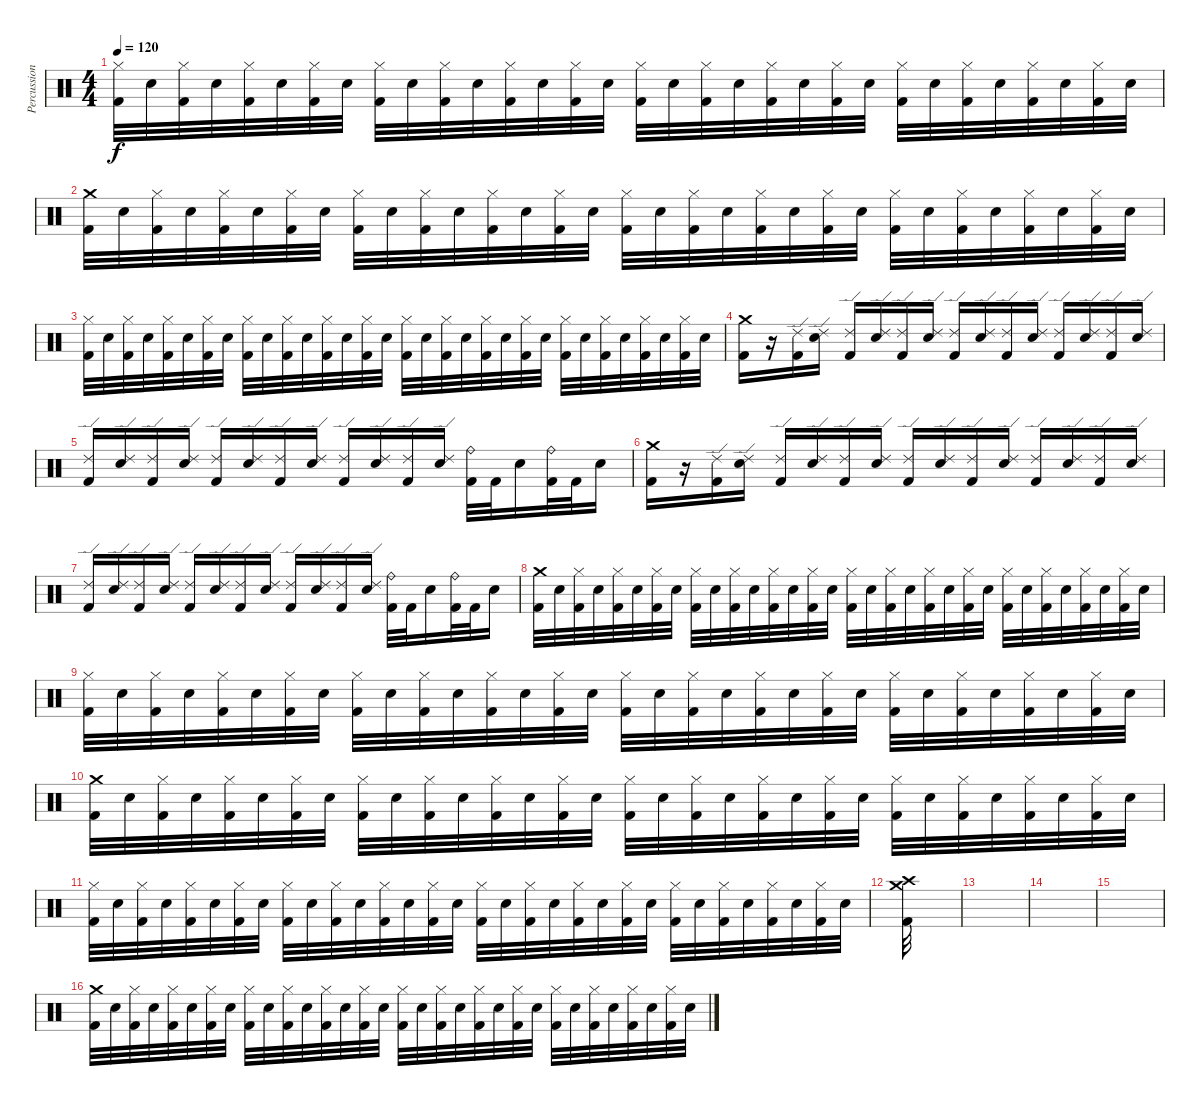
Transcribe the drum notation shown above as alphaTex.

\track ("Percussion" "Percussion") {instrument percussion}
\staff {score}
\articulation defaults
\ts (4 4)
\tempo 120
\clef neutral
\ks c
("Kick (hit) 2" "Hi-Hat (closed)").32{dy f} "Snare (hit) 2".32 ("Kick (hit) 2" "Hi-Hat (closed)").32 "Snare (hit) 2".32 ("Kick (hit) 2" "Hi-Hat (closed)").32 "Snare (hit) 2".32 ("Kick (hit) 2" "Hi-Hat (closed)").32 "Snare (hit) 2".32 ("Kick (hit) 2" "Hi-Hat (closed)").32 "Snare (hit) 2".32 ("Kick (hit) 2" "Hi-Hat (closed)").32 "Snare (hit) 2".32 ("Kick (hit) 2" "Hi-Hat (closed)").32 "Snare (hit) 2".32 ("Kick (hit) 2" "Hi-Hat (closed)").32 "Snare (hit) 2".32 ("Kick (hit) 2" "Hi-Hat (closed)").32 "Snare (hit) 2".32 ("Kick (hit) 2" "Hi-Hat (closed)").32 "Snare (hit) 2".32 ("Kick (hit) 2" "Hi-Hat (closed)").32 "Snare (hit) 2".32 ("Kick (hit) 2" "Hi-Hat (closed)").32 "Snare (hit) 2".32 ("Kick (hit) 2" "Hi-Hat (closed)").32 "Snare (hit) 2".32 ("Kick (hit) 2" "Hi-Hat (closed)").32 "Snare (hit) 2".32 ("Kick (hit) 2" "Hi-Hat (closed)").32 "Snare (hit) 2".32 ("Kick (hit) 2" "Hi-Hat (closed)").32 "Snare (hit) 2".32 |
("Kick (hit) 2" "Crash medium (hit)").32 "Snare (hit) 2".32 ("Kick (hit) 2" "Hi-Hat (closed)").32 "Snare (hit) 2".32 ("Kick (hit) 2" "Hi-Hat (closed)").32 "Snare (hit) 2".32 ("Kick (hit) 2" "Hi-Hat (closed)").32 "Snare (hit) 2".32 ("Kick (hit) 2" "Hi-Hat (closed)").32 "Snare (hit) 2".32 ("Kick (hit) 2" "Hi-Hat (closed)").32 "Snare (hit) 2".32 ("Kick (hit) 2" "Hi-Hat (closed)").32 "Snare (hit) 2".32 ("Kick (hit) 2" "Hi-Hat (closed)").32 "Snare (hit) 2".32 ("Kick (hit) 2" "Hi-Hat (closed)").32 "Snare (hit) 2".32 ("Kick (hit) 2" "Hi-Hat (closed)").32 "Snare (hit) 2".32 ("Kick (hit) 2" "Hi-Hat (closed)").32 "Snare (hit) 2".32 ("Kick (hit) 2" "Hi-Hat (closed)").32 "Snare (hit) 2".32 ("Kick (hit) 2" "Hi-Hat (closed)").32 "Snare (hit) 2".32 ("Kick (hit) 2" "Hi-Hat (closed)").32 "Snare (hit) 2".32 ("Kick (hit) 2" "Hi-Hat (closed)").32 "Snare (hit) 2".32 ("Kick (hit) 2" "Hi-Hat (closed)").32 "Snare (hit) 2".32 |
("Kick (hit) 2" "Hi-Hat (closed)").32 "Snare (hit) 2".32 ("Kick (hit) 2" "Hi-Hat (closed)").32 "Snare (hit) 2".32 ("Kick (hit) 2" "Hi-Hat (closed)").32 "Snare (hit) 2".32 ("Kick (hit) 2" "Hi-Hat (closed)").32 "Snare (hit) 2".32 ("Kick (hit) 2" "Hi-Hat (closed)").32 "Snare (hit) 2".32 ("Kick (hit) 2" "Hi-Hat (closed)").32 "Snare (hit) 2".32 ("Kick (hit) 2" "Hi-Hat (closed)").32 "Snare (hit) 2".32 ("Kick (hit) 2" "Hi-Hat (closed)").32 "Snare (hit) 2".32 ("Kick (hit) 2" "Hi-Hat (closed)").32 "Snare (hit) 2".32 ("Kick (hit) 2" "Hi-Hat (closed)").32 "Snare (hit) 2".32 ("Kick (hit) 2" "Hi-Hat (closed)").32 "Snare (hit) 2".32 ("Kick (hit) 2" "Hi-Hat (closed)").32 "Snare (hit) 2".32 ("Kick (hit) 2" "Hi-Hat (closed)").32 "Snare (hit) 2".32 ("Kick (hit) 2" "Hi-Hat (closed)").32 "Snare (hit) 2".32 ("Kick (hit) 2" "Hi-Hat (closed)").32 "Snare (hit) 2".32 ("Kick (hit) 2" "Hi-Hat (closed)").32 "Snare (hit) 2".32 |
("Kick (hit) 2" "Crash medium (hit)").16 r.16 ("Kick (hit) 2" "Ride (edge) 2").16 ("Snare (hit) 2" "Ride (edge) 2").16 ("Kick (hit) 2" "Ride (edge) 2").16 ("Snare (hit) 2" "Ride (edge) 2").16 ("Kick (hit) 2" "Ride (edge) 2").16 ("Snare (hit) 2" "Ride (edge) 2").16 ("Kick (hit) 2" "Ride (edge) 2").16 ("Snare (hit) 2" "Ride (edge) 2").16 ("Kick (hit) 2" "Ride (edge) 2").16 ("Snare (hit) 2" "Ride (edge) 2").16 ("Kick (hit) 2" "Ride (edge) 2").16 ("Snare (hit) 2" "Ride (edge) 2").16 ("Kick (hit) 2" "Ride (edge) 2").16 ("Snare (hit) 2" "Ride (edge) 2").16 |
("Kick (hit) 2" "Ride (edge) 2").16 ("Snare (hit) 2" "Ride (edge) 2").16 ("Kick (hit) 2" "Ride (edge) 2").16 ("Snare (hit) 2" "Ride (edge) 2").16 ("Kick (hit) 2" "Ride (edge) 2").16 ("Snare (hit) 2" "Ride (edge) 2").16 ("Kick (hit) 2" "Ride (edge) 2").16 ("Snare (hit) 2" "Ride (edge) 2").16 ("Kick (hit) 2" "Ride (edge) 2").16 ("Snare (hit) 2" "Ride (edge) 2").16 ("Kick (hit) 2" "Ride (edge) 2").16 ("Snare (hit) 2" "Ride (edge) 2").16 ("Kick (hit) 2" "Ride (bell)").32 "Kick (hit) 2".32 "Snare (hit) 2".16 ("Kick (hit) 2" "Ride (bell)").32 "Kick (hit) 2".32 "Snare (hit) 2".16 |
("Kick (hit) 2" "Crash medium (hit)").16 r.16 ("Kick (hit) 2" "Ride (edge) 2").16 ("Snare (hit) 2" "Ride (edge) 2").16 ("Kick (hit) 2" "Ride (edge) 2").16 ("Snare (hit) 2" "Ride (edge) 2").16 ("Kick (hit) 2" "Ride (edge) 2").16 ("Snare (hit) 2" "Ride (edge) 2").16 ("Kick (hit) 2" "Ride (edge) 2").16 ("Snare (hit) 2" "Ride (edge) 2").16 ("Kick (hit) 2" "Ride (edge) 2").16 ("Snare (hit) 2" "Ride (edge) 2").16 ("Kick (hit) 2" "Ride (edge) 2").16 ("Snare (hit) 2" "Ride (edge) 2").16 ("Kick (hit) 2" "Ride (edge) 2").16 ("Snare (hit) 2" "Ride (edge) 2").16 |
("Kick (hit) 2" "Ride (edge) 2").16 ("Snare (hit) 2" "Ride (edge) 2").16 ("Kick (hit) 2" "Ride (edge) 2").16 ("Snare (hit) 2" "Ride (edge) 2").16 ("Kick (hit) 2" "Ride (edge) 2").16 ("Snare (hit) 2" "Ride (edge) 2").16 ("Kick (hit) 2" "Ride (edge) 2").16 ("Snare (hit) 2" "Ride (edge) 2").16 ("Kick (hit) 2" "Ride (edge) 2").16 ("Snare (hit) 2" "Ride (edge) 2").16 ("Kick (hit) 2" "Ride (edge) 2").16 ("Snare (hit) 2" "Ride (edge) 2").16 ("Kick (hit) 2" "Ride (bell)").32 "Kick (hit) 2".32 "Snare (hit) 2".16 ("Kick (hit) 2" "Ride (bell)").32 "Kick (hit) 2".32 "Snare (hit) 2".16 |
("Kick (hit) 2" "Crash medium (hit)").32 "Snare (hit) 2".32 ("Kick (hit) 2" "Hi-Hat (closed)").32 "Snare (hit) 2".32 ("Kick (hit) 2" "Hi-Hat (closed)").32 "Snare (hit) 2".32 ("Kick (hit) 2" "Hi-Hat (closed)").32 "Snare (hit) 2".32 ("Kick (hit) 2" "Hi-Hat (closed)").32 "Snare (hit) 2".32 ("Kick (hit) 2" "Hi-Hat (closed)").32 "Snare (hit) 2".32 ("Kick (hit) 2" "Hi-Hat (closed)").32 "Snare (hit) 2".32 ("Kick (hit) 2" "Hi-Hat (closed)").32 "Snare (hit) 2".32 ("Kick (hit) 2" "Hi-Hat (closed)").32 "Snare (hit) 2".32 ("Kick (hit) 2" "Hi-Hat (closed)").32 "Snare (hit) 2".32 ("Kick (hit) 2" "Hi-Hat (closed)").32 "Snare (hit) 2".32 ("Kick (hit) 2" "Hi-Hat (closed)").32 "Snare (hit) 2".32 ("Kick (hit) 2" "Hi-Hat (closed)").32 "Snare (hit) 2".32 ("Kick (hit) 2" "Hi-Hat (closed)").32 "Snare (hit) 2".32 ("Kick (hit) 2" "Hi-Hat (closed)").32 "Snare (hit) 2".32 ("Kick (hit) 2" "Hi-Hat (closed)").32 "Snare (hit) 2".32 |
("Kick (hit) 2" "Hi-Hat (closed)").32 "Snare (hit) 2".32 ("Kick (hit) 2" "Hi-Hat (closed)").32 "Snare (hit) 2".32 ("Kick (hit) 2" "Hi-Hat (closed)").32 "Snare (hit) 2".32 ("Kick (hit) 2" "Hi-Hat (closed)").32 "Snare (hit) 2".32 ("Kick (hit) 2" "Hi-Hat (closed)").32 "Snare (hit) 2".32 ("Kick (hit) 2" "Hi-Hat (closed)").32 "Snare (hit) 2".32 ("Kick (hit) 2" "Hi-Hat (closed)").32 "Snare (hit) 2".32 ("Kick (hit) 2" "Hi-Hat (closed)").32 "Snare (hit) 2".32 ("Kick (hit) 2" "Hi-Hat (closed)").32 "Snare (hit) 2".32 ("Kick (hit) 2" "Hi-Hat (closed)").32 "Snare (hit) 2".32 ("Kick (hit) 2" "Hi-Hat (closed)").32 "Snare (hit) 2".32 ("Kick (hit) 2" "Hi-Hat (closed)").32 "Snare (hit) 2".32 ("Kick (hit) 2" "Hi-Hat (closed)").32 "Snare (hit) 2".32 ("Kick (hit) 2" "Hi-Hat (closed)").32 "Snare (hit) 2".32 ("Kick (hit) 2" "Hi-Hat (closed)").32 "Snare (hit) 2".32 ("Kick (hit) 2" "Hi-Hat (closed)").32 "Snare (hit) 2".32 |
("Kick (hit) 2" "Crash medium (hit)").32 "Snare (hit) 2".32 ("Kick (hit) 2" "Hi-Hat (closed)").32 "Snare (hit) 2".32 ("Kick (hit) 2" "Hi-Hat (closed)").32 "Snare (hit) 2".32 ("Kick (hit) 2" "Hi-Hat (closed)").32 "Snare (hit) 2".32 ("Kick (hit) 2" "Hi-Hat (closed)").32 "Snare (hit) 2".32 ("Kick (hit) 2" "Hi-Hat (closed)").32 "Snare (hit) 2".32 ("Kick (hit) 2" "Hi-Hat (closed)").32 "Snare (hit) 2".32 ("Kick (hit) 2" "Hi-Hat (closed)").32 "Snare (hit) 2".32 ("Kick (hit) 2" "Hi-Hat (closed)").32 "Snare (hit) 2".32 ("Kick (hit) 2" "Hi-Hat (closed)").32 "Snare (hit) 2".32 ("Kick (hit) 2" "Hi-Hat (closed)").32 "Snare (hit) 2".32 ("Kick (hit) 2" "Hi-Hat (closed)").32 "Snare (hit) 2".32 ("Kick (hit) 2" "Hi-Hat (closed)").32 "Snare (hit) 2".32 ("Kick (hit) 2" "Hi-Hat (closed)").32 "Snare (hit) 2".32 ("Kick (hit) 2" "Hi-Hat (closed)").32 "Snare (hit) 2".32 ("Kick (hit) 2" "Hi-Hat (closed)").32 "Snare (hit) 2".32 |
("Kick (hit) 2" "Hi-Hat (closed)").32 "Snare (hit) 2".32 ("Kick (hit) 2" "Hi-Hat (closed)").32 "Snare (hit) 2".32 ("Kick (hit) 2" "Hi-Hat (closed)").32 "Snare (hit) 2".32 ("Kick (hit) 2" "Hi-Hat (closed)").32 "Snare (hit) 2".32 ("Kick (hit) 2" "Hi-Hat (closed)").32 "Snare (hit) 2".32 ("Kick (hit) 2" "Hi-Hat (closed)").32 "Snare (hit) 2".32 ("Kick (hit) 2" "Hi-Hat (closed)").32 "Snare (hit) 2".32 ("Kick (hit) 2" "Hi-Hat (closed)").32 "Snare (hit) 2".32 ("Kick (hit) 2" "Hi-Hat (closed)").32 "Snare (hit) 2".32 ("Kick (hit) 2" "Hi-Hat (closed)").32 "Snare (hit) 2".32 ("Kick (hit) 2" "Hi-Hat (closed)").32 "Snare (hit) 2".32 ("Kick (hit) 2" "Hi-Hat (closed)").32 "Snare (hit) 2".32 ("Kick (hit) 2" "Hi-Hat (closed)").32 "Snare (hit) 2".32 ("Kick (hit) 2" "Hi-Hat (closed)").32 "Snare (hit) 2".32 ("Kick (hit) 2" "Hi-Hat (closed)").32 "Snare (hit) 2".32 ("Kick (hit) 2" "Hi-Hat (closed)").32 "Snare (hit) 2".32 |
("Kick (hit) 2" "Crash medium (hit)" "Crash high (hit)").32 |
|
|
|
("Kick (hit) 2" "Crash medium (hit)").32 "Snare (hit) 2".32 ("Kick (hit) 2" "Hi-Hat (closed)").32 "Snare (hit) 2".32 ("Kick (hit) 2" "Hi-Hat (closed)").32 "Snare (hit) 2".32 ("Kick (hit) 2" "Hi-Hat (closed)").32 "Snare (hit) 2".32 ("Kick (hit) 2" "Hi-Hat (closed)").32 "Snare (hit) 2".32 ("Kick (hit) 2" "Hi-Hat (closed)").32 "Snare (hit) 2".32 ("Kick (hit) 2" "Hi-Hat (closed)").32 "Snare (hit) 2".32 ("Kick (hit) 2" "Hi-Hat (closed)").32 "Snare (hit) 2".32 ("Kick (hit) 2" "Hi-Hat (closed)").32 "Snare (hit) 2".32 ("Kick (hit) 2" "Hi-Hat (closed)").32 "Snare (hit) 2".32 ("Kick (hit) 2" "Hi-Hat (closed)").32 "Snare (hit) 2".32 ("Kick (hit) 2" "Hi-Hat (closed)").32 "Snare (hit) 2".32 ("Kick (hit) 2" "Hi-Hat (closed)").32 "Snare (hit) 2".32 ("Kick (hit) 2" "Hi-Hat (closed)").32 "Snare (hit) 2".32 ("Kick (hit) 2" "Hi-Hat (closed)").32 "Snare (hit) 2".32 ("Kick (hit) 2" "Hi-Hat (closed)").32 "Snare (hit) 2".32
